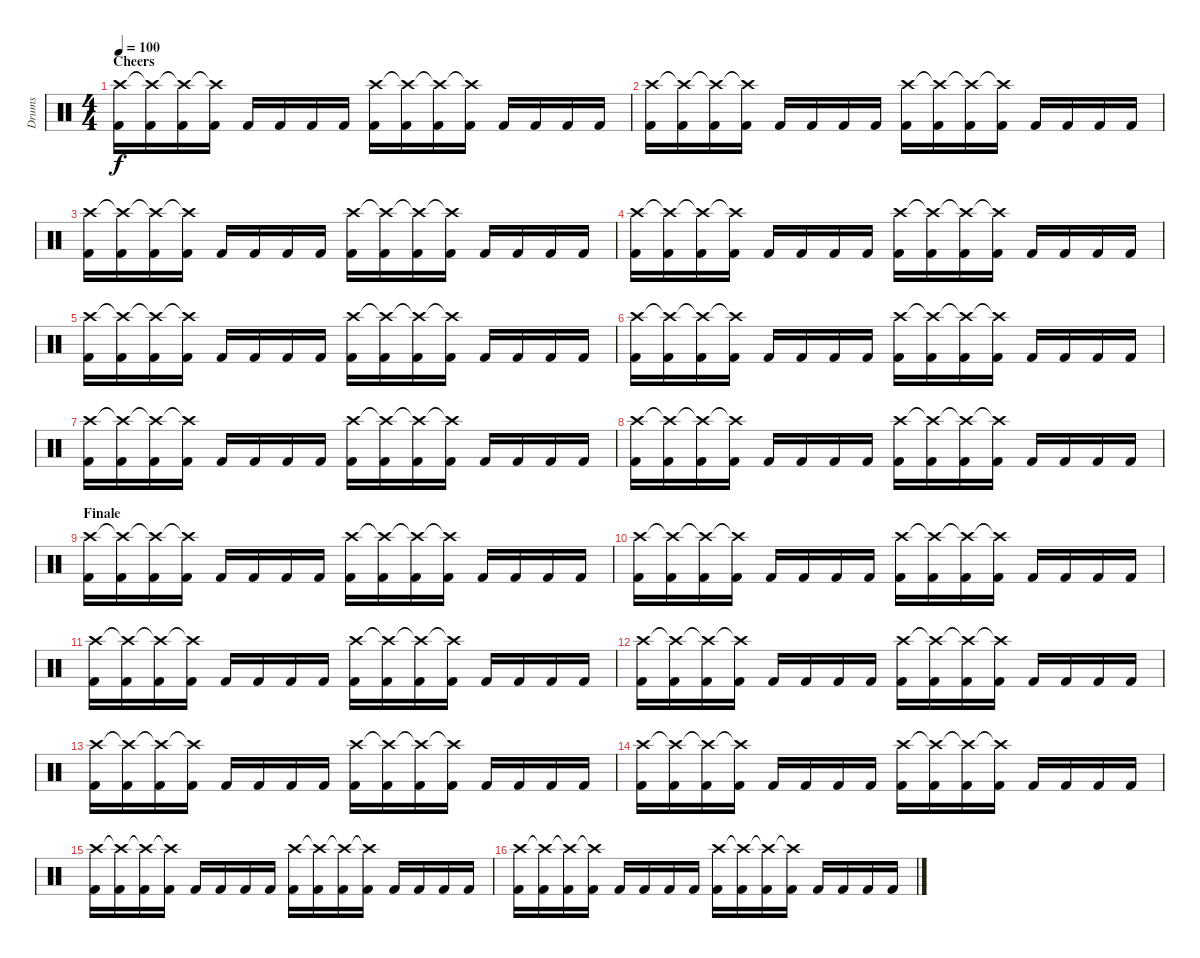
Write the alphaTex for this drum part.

\track ("Drums" "Drums") {instrument percussion}
\staff {score}
\articulation defaults
\ts (4 4)
\section ("" "Cheers")
\tempo 100
\clef neutral
\ks c
("Crash high (hit)" "Kick (hit) 2").16{dy f} ("Crash high (hit)"{t} "Kick (hit) 2").16 ("Crash high (hit)"{t} "Kick (hit) 2").16 ("Crash high (hit)"{t} "Kick (hit) 2").16 "Kick (hit) 2".16 "Kick (hit) 2".16 "Kick (hit) 2".16 "Kick (hit) 2".16 ("Crash high (hit)" "Kick (hit) 2").16 ("Crash high (hit)"{t} "Kick (hit) 2").16 ("Crash high (hit)"{t} "Kick (hit) 2").16 ("Crash high (hit)"{t} "Kick (hit) 2").16 "Kick (hit) 2".16 "Kick (hit) 2".16 "Kick (hit) 2".16 "Kick (hit) 2".16 |
("Crash high (hit)" "Kick (hit) 2").16 ("Crash high (hit)"{t} "Kick (hit) 2").16 ("Crash high (hit)"{t} "Kick (hit) 2").16 ("Crash high (hit)"{t} "Kick (hit) 2").16 "Kick (hit) 2".16 "Kick (hit) 2".16 "Kick (hit) 2".16 "Kick (hit) 2".16 ("Crash high (hit)" "Kick (hit) 2").16 ("Crash high (hit)"{t} "Kick (hit) 2").16 ("Crash high (hit)"{t} "Kick (hit) 2").16 ("Crash high (hit)"{t} "Kick (hit) 2").16 "Kick (hit) 2".16 "Kick (hit) 2".16 "Kick (hit) 2".16 "Kick (hit) 2".16 |
("Crash high (hit)" "Kick (hit) 2").16 ("Crash high (hit)"{t} "Kick (hit) 2").16 ("Crash high (hit)"{t} "Kick (hit) 2").16 ("Crash high (hit)"{t} "Kick (hit) 2").16 "Kick (hit) 2".16 "Kick (hit) 2".16 "Kick (hit) 2".16 "Kick (hit) 2".16 ("Crash high (hit)" "Kick (hit) 2").16 ("Crash high (hit)"{t} "Kick (hit) 2").16 ("Crash high (hit)"{t} "Kick (hit) 2").16 ("Crash high (hit)"{t} "Kick (hit) 2").16 "Kick (hit) 2".16 "Kick (hit) 2".16 "Kick (hit) 2".16 "Kick (hit) 2".16 |
("Crash high (hit)" "Kick (hit) 2").16 ("Crash high (hit)"{t} "Kick (hit) 2").16 ("Crash high (hit)"{t} "Kick (hit) 2").16 ("Crash high (hit)"{t} "Kick (hit) 2").16 "Kick (hit) 2".16 "Kick (hit) 2".16 "Kick (hit) 2".16 "Kick (hit) 2".16 ("Crash high (hit)" "Kick (hit) 2").16 ("Crash high (hit)"{t} "Kick (hit) 2").16 ("Crash high (hit)"{t} "Kick (hit) 2").16 ("Crash high (hit)"{t} "Kick (hit) 2").16 "Kick (hit) 2".16 "Kick (hit) 2".16 "Kick (hit) 2".16 "Kick (hit) 2".16 |
("Crash high (hit)" "Kick (hit) 2").16 ("Crash high (hit)"{t} "Kick (hit) 2").16 ("Crash high (hit)"{t} "Kick (hit) 2").16 ("Crash high (hit)"{t} "Kick (hit) 2").16 "Kick (hit) 2".16 "Kick (hit) 2".16 "Kick (hit) 2".16 "Kick (hit) 2".16 ("Crash high (hit)" "Kick (hit) 2").16 ("Crash high (hit)"{t} "Kick (hit) 2").16 ("Crash high (hit)"{t} "Kick (hit) 2").16 ("Crash high (hit)"{t} "Kick (hit) 2").16 "Kick (hit) 2".16 "Kick (hit) 2".16 "Kick (hit) 2".16 "Kick (hit) 2".16 |
("Crash high (hit)" "Kick (hit) 2").16 ("Crash high (hit)"{t} "Kick (hit) 2").16 ("Crash high (hit)"{t} "Kick (hit) 2").16 ("Crash high (hit)"{t} "Kick (hit) 2").16 "Kick (hit) 2".16 "Kick (hit) 2".16 "Kick (hit) 2".16 "Kick (hit) 2".16 ("Crash high (hit)" "Kick (hit) 2").16 ("Crash high (hit)"{t} "Kick (hit) 2").16 ("Crash high (hit)"{t} "Kick (hit) 2").16 ("Crash high (hit)"{t} "Kick (hit) 2").16 "Kick (hit) 2".16 "Kick (hit) 2".16 "Kick (hit) 2".16 "Kick (hit) 2".16 |
("Crash high (hit)" "Kick (hit) 2").16 ("Crash high (hit)"{t} "Kick (hit) 2").16 ("Crash high (hit)"{t} "Kick (hit) 2").16 ("Crash high (hit)"{t} "Kick (hit) 2").16 "Kick (hit) 2".16 "Kick (hit) 2".16 "Kick (hit) 2".16 "Kick (hit) 2".16 ("Crash high (hit)" "Kick (hit) 2").16 ("Crash high (hit)"{t} "Kick (hit) 2").16 ("Crash high (hit)"{t} "Kick (hit) 2").16 ("Crash high (hit)"{t} "Kick (hit) 2").16 "Kick (hit) 2".16 "Kick (hit) 2".16 "Kick (hit) 2".16 "Kick (hit) 2".16 |
("Crash high (hit)" "Kick (hit) 2").16 ("Crash high (hit)"{t} "Kick (hit) 2").16 ("Crash high (hit)"{t} "Kick (hit) 2").16 ("Crash high (hit)"{t} "Kick (hit) 2").16 "Kick (hit) 2".16 "Kick (hit) 2".16 "Kick (hit) 2".16 "Kick (hit) 2".16 ("Crash high (hit)" "Kick (hit) 2").16 ("Crash high (hit)"{t} "Kick (hit) 2").16 ("Crash high (hit)"{t} "Kick (hit) 2").16 ("Crash high (hit)"{t} "Kick (hit) 2").16 "Kick (hit) 2".16 "Kick (hit) 2".16 "Kick (hit) 2".16 "Kick (hit) 2".16 |
\section ("" "Finale")
("Crash high (hit)" "Kick (hit) 2").16 ("Crash high (hit)"{t} "Kick (hit) 2").16 ("Crash high (hit)"{t} "Kick (hit) 2").16 ("Crash high (hit)"{t} "Kick (hit) 2").16 "Kick (hit) 2".16 "Kick (hit) 2".16 "Kick (hit) 2".16 "Kick (hit) 2".16 ("Crash high (hit)" "Kick (hit) 2").16 ("Crash high (hit)"{t} "Kick (hit) 2").16 ("Crash high (hit)"{t} "Kick (hit) 2").16 ("Crash high (hit)"{t} "Kick (hit) 2").16 "Kick (hit) 2".16 "Kick (hit) 2".16 "Kick (hit) 2".16 "Kick (hit) 2".16 |
("Crash high (hit)" "Kick (hit) 2").16 ("Crash high (hit)"{t} "Kick (hit) 2").16 ("Crash high (hit)"{t} "Kick (hit) 2").16 ("Crash high (hit)"{t} "Kick (hit) 2").16 "Kick (hit) 2".16 "Kick (hit) 2".16 "Kick (hit) 2".16 "Kick (hit) 2".16 ("Crash high (hit)" "Kick (hit) 2").16 ("Crash high (hit)"{t} "Kick (hit) 2").16 ("Crash high (hit)"{t} "Kick (hit) 2").16 ("Crash high (hit)"{t} "Kick (hit) 2").16 "Kick (hit) 2".16 "Kick (hit) 2".16 "Kick (hit) 2".16 "Kick (hit) 2".16 |
("Crash high (hit)" "Kick (hit) 2").16 ("Crash high (hit)"{t} "Kick (hit) 2").16 ("Crash high (hit)"{t} "Kick (hit) 2").16 ("Crash high (hit)"{t} "Kick (hit) 2").16 "Kick (hit) 2".16 "Kick (hit) 2".16 "Kick (hit) 2".16 "Kick (hit) 2".16 ("Crash high (hit)" "Kick (hit) 2").16 ("Crash high (hit)"{t} "Kick (hit) 2").16 ("Crash high (hit)"{t} "Kick (hit) 2").16 ("Crash high (hit)"{t} "Kick (hit) 2").16 "Kick (hit) 2".16 "Kick (hit) 2".16 "Kick (hit) 2".16 "Kick (hit) 2".16 |
("Crash high (hit)" "Kick (hit) 2").16 ("Crash high (hit)"{t} "Kick (hit) 2").16 ("Crash high (hit)"{t} "Kick (hit) 2").16 ("Crash high (hit)"{t} "Kick (hit) 2").16 "Kick (hit) 2".16 "Kick (hit) 2".16 "Kick (hit) 2".16 "Kick (hit) 2".16 ("Crash high (hit)" "Kick (hit) 2").16 ("Crash high (hit)"{t} "Kick (hit) 2").16 ("Crash high (hit)"{t} "Kick (hit) 2").16 ("Crash high (hit)"{t} "Kick (hit) 2").16 "Kick (hit) 2".16 "Kick (hit) 2".16 "Kick (hit) 2".16 "Kick (hit) 2".16 |
("Crash high (hit)" "Kick (hit) 2").16 ("Crash high (hit)"{t} "Kick (hit) 2").16 ("Crash high (hit)"{t} "Kick (hit) 2").16 ("Crash high (hit)"{t} "Kick (hit) 2").16 "Kick (hit) 2".16 "Kick (hit) 2".16 "Kick (hit) 2".16 "Kick (hit) 2".16 ("Crash high (hit)" "Kick (hit) 2").16 ("Crash high (hit)"{t} "Kick (hit) 2").16 ("Crash high (hit)"{t} "Kick (hit) 2").16 ("Crash high (hit)"{t} "Kick (hit) 2").16 "Kick (hit) 2".16 "Kick (hit) 2".16 "Kick (hit) 2".16 "Kick (hit) 2".16 |
("Crash high (hit)" "Kick (hit) 2").16 ("Crash high (hit)"{t} "Kick (hit) 2").16 ("Crash high (hit)"{t} "Kick (hit) 2").16 ("Crash high (hit)"{t} "Kick (hit) 2").16 "Kick (hit) 2".16 "Kick (hit) 2".16 "Kick (hit) 2".16 "Kick (hit) 2".16 ("Crash high (hit)" "Kick (hit) 2").16 ("Crash high (hit)"{t} "Kick (hit) 2").16 ("Crash high (hit)"{t} "Kick (hit) 2").16 ("Crash high (hit)"{t} "Kick (hit) 2").16 "Kick (hit) 2".16 "Kick (hit) 2".16 "Kick (hit) 2".16 "Kick (hit) 2".16 |
("Crash high (hit)" "Kick (hit) 2").16 ("Crash high (hit)"{t} "Kick (hit) 2").16 ("Crash high (hit)"{t} "Kick (hit) 2").16 ("Crash high (hit)"{t} "Kick (hit) 2").16 "Kick (hit) 2".16 "Kick (hit) 2".16 "Kick (hit) 2".16 "Kick (hit) 2".16 ("Crash high (hit)" "Kick (hit) 2").16 ("Crash high (hit)"{t} "Kick (hit) 2").16 ("Crash high (hit)"{t} "Kick (hit) 2").16 ("Crash high (hit)"{t} "Kick (hit) 2").16 "Kick (hit) 2".16 "Kick (hit) 2".16 "Kick (hit) 2".16 "Kick (hit) 2".16 |
("Crash high (hit)" "Kick (hit) 2").16 ("Crash high (hit)"{t} "Kick (hit) 2").16 ("Crash high (hit)"{t} "Kick (hit) 2").16 ("Crash high (hit)"{t} "Kick (hit) 2").16 "Kick (hit) 2".16 "Kick (hit) 2".16 "Kick (hit) 2".16 "Kick (hit) 2".16 ("Crash high (hit)" "Kick (hit) 2").16 ("Crash high (hit)"{t} "Kick (hit) 2").16 ("Crash high (hit)"{t} "Kick (hit) 2").16 ("Crash high (hit)"{t} "Kick (hit) 2").16 "Kick (hit) 2".16 "Kick (hit) 2".16 "Kick (hit) 2".16 "Kick (hit) 2".16
